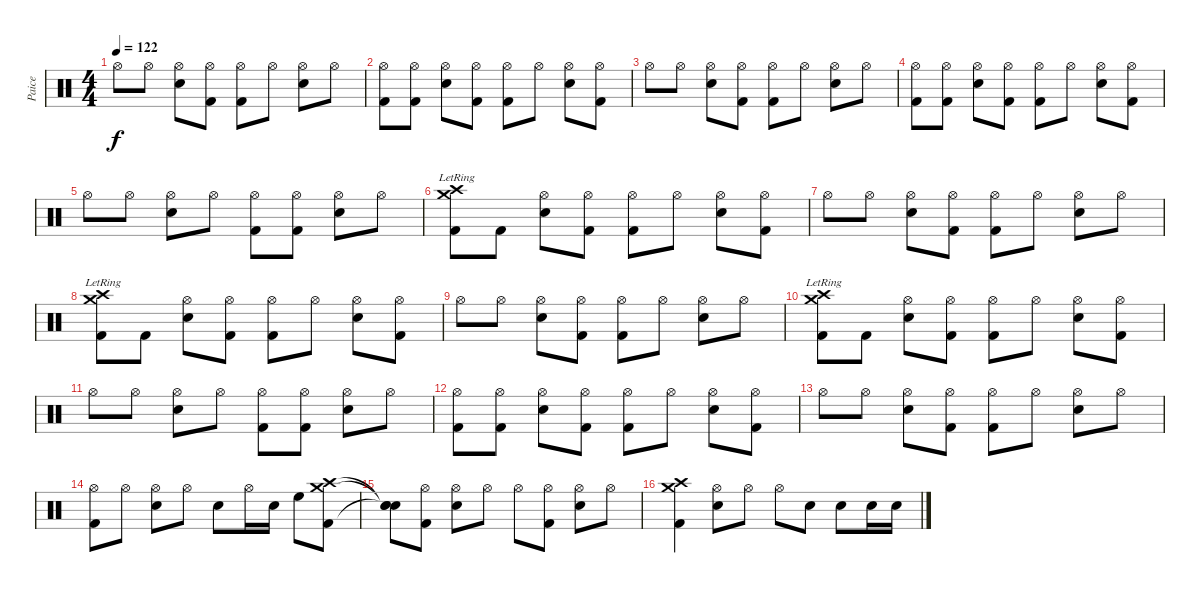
\track ("Paice" "Paice") {instrument percussion}
\staff {score}
\articulation defaults
\ts (4 4)
\tempo 122
\clef neutral
\ks c "Hi-Hat (open)".8{dy f} "Hi-Hat (open)".8
("Hi-Hat (open)" "Electric Snare (hit)").8 ("Hi-Hat (open)" "Kick (hit) 2").8 ("Hi-Hat (open)" "Kick (hit) 2").8 "Hi-Hat (open)".8 ("Hi-Hat (open)" "Electric Snare (hit)").8 "Hi-Hat (open)".8 |
("Hi-Hat (open)" "Kick (hit) 2").8 ("Hi-Hat (open)" "Kick (hit) 2").8 ("Hi-Hat (open)" "Electric Snare (hit)").8 ("Hi-Hat (open)" "Kick (hit) 2").8 ("Hi-Hat (open)" "Kick (hit) 2").8 "Hi-Hat (open)".8 ("Hi-Hat (open)" "Electric Snare (hit)").8 ("Hi-Hat (open)" "Kick (hit) 2").8 |
"Hi-Hat (open)".8 "Hi-Hat (open)".8 ("Hi-Hat (open)" "Electric Snare (hit)").8 ("Hi-Hat (open)" "Kick (hit) 2").8 ("Hi-Hat (open)" "Kick (hit) 2").8 "Hi-Hat (open)".8 ("Hi-Hat (open)" "Electric Snare (hit)").8 "Hi-Hat (open)".8 |
("Hi-Hat (open)" "Kick (hit) 2").8 ("Hi-Hat (open)" "Kick (hit) 2").8 ("Hi-Hat (open)" "Electric Snare (hit)").8 ("Hi-Hat (open)" "Kick (hit) 2").8 ("Hi-Hat (open)" "Kick (hit) 2").8 "Hi-Hat (open)".8 ("Hi-Hat (open)" "Electric Snare (hit)").8 ("Hi-Hat (open)" "Kick (hit) 2").8 |
"Hi-Hat (open)".8 "Hi-Hat (open)".8 ("Hi-Hat (open)" "Electric Snare (hit)").8 "Hi-Hat (open)".8 ("Hi-Hat (open)" "Kick (hit) 2").8 ("Hi-Hat (open)" "Kick (hit) 2").8 ("Hi-Hat (open)" "Electric Snare (hit)").8 "Hi-Hat (open)".8 |
("Crash high (hit)"{lr} "Crash medium (hit)"{lr} "Kick (hit) 2").8 "Kick (hit) 2".8 ("Hi-Hat (open)" "Electric Snare (hit)").8 ("Hi-Hat (open)" "Kick (hit) 2").8 ("Hi-Hat (open)" "Kick (hit) 2").8 "Hi-Hat (open)".8 ("Hi-Hat (open)" "Electric Snare (hit)").8 ("Hi-Hat (open)" "Kick (hit) 2").8 |
"Hi-Hat (open)".8 "Hi-Hat (open)".8 ("Hi-Hat (open)" "Electric Snare (hit)").8 ("Hi-Hat (open)" "Kick (hit) 2").8 ("Hi-Hat (open)" "Kick (hit) 2").8 "Hi-Hat (open)".8 ("Hi-Hat (open)" "Electric Snare (hit)").8 "Hi-Hat (open)".8 |
("Crash high (hit)"{lr} "Crash medium (hit)"{lr} "Kick (hit) 2").8 "Kick (hit) 2".8 ("Hi-Hat (open)" "Electric Snare (hit)").8 ("Hi-Hat (open)" "Kick (hit) 2").8 ("Hi-Hat (open)" "Kick (hit) 2").8 "Hi-Hat (open)".8 ("Hi-Hat (open)" "Electric Snare (hit)").8 ("Hi-Hat (open)" "Kick (hit) 2").8 |
"Hi-Hat (open)".8 "Hi-Hat (open)".8 ("Hi-Hat (open)" "Electric Snare (hit)").8 ("Hi-Hat (open)" "Kick (hit) 2").8 ("Hi-Hat (open)" "Kick (hit) 2").8 "Hi-Hat (open)".8 ("Hi-Hat (open)" "Electric Snare (hit)").8 "Hi-Hat (open)".8 |
("Crash high (hit)"{lr} "Crash medium (hit)"{lr} "Kick (hit) 2").8 "Kick (hit) 2".8 ("Hi-Hat (open)" "Electric Snare (hit)").8 ("Hi-Hat (open)" "Kick (hit) 2").8 ("Hi-Hat (open)" "Kick (hit) 2").8 "Hi-Hat (open)".8 ("Hi-Hat (open)" "Electric Snare (hit)").8 ("Hi-Hat (open)" "Kick (hit) 2").8 |
"Hi-Hat (open)".8 "Hi-Hat (open)".8 ("Hi-Hat (open)" "Electric Snare (hit)").8 "Hi-Hat (open)".8 ("Hi-Hat (open)" "Kick (hit) 2").8 ("Hi-Hat (open)" "Kick (hit) 2").8 ("Hi-Hat (open)" "Electric Snare (hit)").8 "Hi-Hat (open)".8 |
("Hi-Hat (open)" "Kick (hit) 2").8 ("Hi-Hat (open)" "Kick (hit) 2").8 ("Hi-Hat (open)" "Electric Snare (hit)").8 ("Hi-Hat (open)" "Kick (hit) 2").8 ("Hi-Hat (open)" "Kick (hit) 2").8 "Hi-Hat (open)".8 ("Hi-Hat (open)" "Electric Snare (hit)").8 ("Hi-Hat (open)" "Kick (hit) 2").8 |
"Hi-Hat (open)".8 "Hi-Hat (open)".8 ("Hi-Hat (open)" "Electric Snare (hit)").8 ("Hi-Hat (open)" "Kick (hit) 2").8 ("Hi-Hat (open)" "Kick (hit) 2").8 "Hi-Hat (open)".8 ("Hi-Hat (open)" "Electric Snare (hit)").8 "Hi-Hat (open)".8 |
("Hi-Hat (open)" "Kick (hit) 2").8 "Hi-Hat (open)".8 ("Hi-Hat (open)" "Electric Snare (hit)").8 "Hi-Hat (open)".8 "Electric Snare (hit)".8 "Hi-Hat (open)".16 "Electric Snare (hit)".16 "High Floor Tom (hit)".8 ("Crash high (hit)" "Crash medium (hit)" "Kick (hit) 2").8 |
("Snare (hit)"{t} "Snare (hit)"{t} "Snare (hit)"{t}).8 ("Hi-Hat (open)" "Kick (hit) 2").8 ("Hi-Hat (open)" "Electric Snare (hit)").8 "Hi-Hat (open)".8 "Hi-Hat (open)".8 ("Hi-Hat (open)" "Kick (hit) 2").8 ("Hi-Hat (open)" "Electric Snare (hit)").8 "Hi-Hat (open)".8 |
("Crash high (hit)" "Crash medium (hit)" "Kick (hit) 2").4 ("Hi-Hat (open)" "Electric Snare (hit)").8 "Hi-Hat (open)".8 "Hi-Hat (open)".8 "Electric Snare (hit)".8 "Electric Snare (hit)".8 "Electric Snare (hit)".16 "Electric Snare (hit)".16
